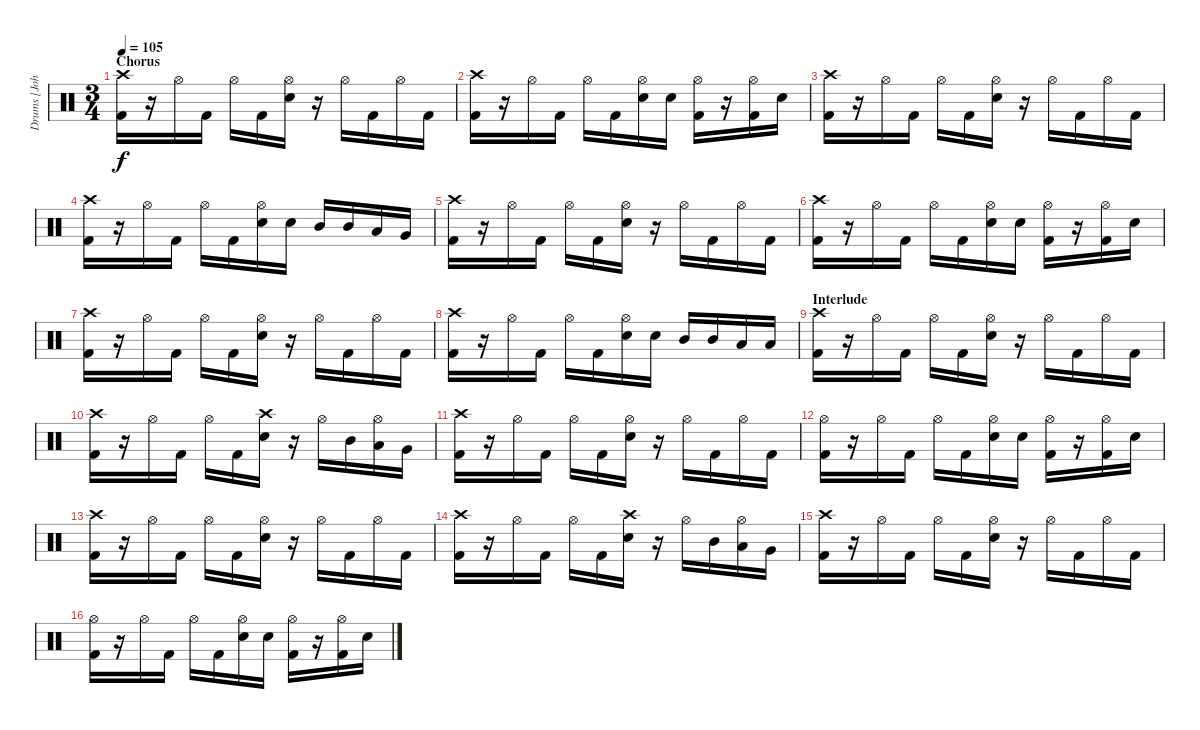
\track ("Drums [John Otto]" "Drums [Joh") {instrument percussion}
\staff {score}
\articulation defaults
\ts (3 4)
\section ("" "Chorus")
\tempo 105
\clef neutral
\ks c
("Crash high (hit)" "Kick (hit) 2").16{dy f} r.16 "Hi-Hat (open)".16 "Kick (hit) 2".16 "Hi-Hat (open)".16 "Kick (hit) 2".16 ("Hi-Hat (open)" "Electric Snare (hit)").16 r.16 "Hi-Hat (open)".16 "Kick (hit) 2".16 "Hi-Hat (open)".16 "Kick (hit) 2".16 |
("Crash high (hit)" "Kick (hit) 2").16 r.16 "Hi-Hat (open)".16 "Kick (hit) 2".16 "Hi-Hat (open)".16 "Kick (hit) 2".16 ("Hi-Hat (open)" "Electric Snare (hit)").16 "Electric Snare (hit)".16 ("Hi-Hat (open)" "Kick (hit) 2").16 r.16 ("Hi-Hat (open)" "Kick (hit) 2").16 "Electric Snare (hit)".16 |
("Crash high (hit)" "Kick (hit) 2").16 r.16 "Hi-Hat (open)".16 "Kick (hit) 2".16 "Hi-Hat (open)".16 "Kick (hit) 2".16 ("Hi-Hat (open)" "Electric Snare (hit)").16 r.16 "Hi-Hat (open)".16 "Kick (hit) 2".16 "Hi-Hat (open)".16 "Kick (hit) 2".16 |
("Crash high (hit)" "Kick (hit) 2").16 r.16 "Hi-Hat (open)".16 "Kick (hit) 2".16 "Hi-Hat (open)".16 "Kick (hit) 2".16 ("Hi-Hat (open)" "Electric Snare (hit)").16 "Electric Snare (hit)".16 "Mid Tom (hit)".16 "Mid Tom (hit)".16 "Low Tom (hit)".16 "Very Low Tom (hit)".16 |
("Crash high (hit)" "Kick (hit) 2").16 r.16 "Hi-Hat (open)".16 "Kick (hit) 2".16 "Hi-Hat (open)".16 "Kick (hit) 2".16 ("Hi-Hat (open)" "Electric Snare (hit)").16 r.16 "Hi-Hat (open)".16 "Kick (hit) 2".16 "Hi-Hat (open)".16 "Kick (hit) 2".16 |
("Crash high (hit)" "Kick (hit) 2").16 r.16 "Hi-Hat (open)".16 "Kick (hit) 2".16 "Hi-Hat (open)".16 "Kick (hit) 2".16 ("Hi-Hat (open)" "Electric Snare (hit)").16 "Electric Snare (hit)".16 ("Hi-Hat (open)" "Kick (hit) 2").16 r.16 ("Hi-Hat (open)" "Kick (hit) 2").16 "Electric Snare (hit)".16 |
("Crash high (hit)" "Kick (hit) 2").16 r.16 "Hi-Hat (open)".16 "Kick (hit) 2".16 "Hi-Hat (open)".16 "Kick (hit) 2".16 ("Hi-Hat (open)" "Electric Snare (hit)").16 r.16 "Hi-Hat (open)".16 "Kick (hit) 2".16 "Hi-Hat (open)".16 "Kick (hit) 2".16 |
("Crash high (hit)" "Kick (hit) 2").16 r.16 "Hi-Hat (open)".16 "Kick (hit) 2".16 "Hi-Hat (open)".16 "Kick (hit) 2".16 ("Hi-Hat (open)" "Electric Snare (hit)").16 "Electric Snare (hit)".16 "Mid Tom (hit)".16 "Mid Tom (hit)".16 "Low Tom (hit)".16 "Low Tom (hit)".16 |
\section ("" "Interlude")
("Crash high (hit)" "Kick (hit) 2").16 r.16 "Hi-Hat (open)".16 "Kick (hit) 2".16 "Hi-Hat (open)".16 "Kick (hit) 2".16 ("Hi-Hat (open)" "Electric Snare (hit)").16 r.16 "Hi-Hat (open)".16 "Kick (hit) 2".16 "Hi-Hat (open)".16 "Kick (hit) 2".16 |
("Crash high (hit)" "Kick (hit) 2").16 r.16 "Hi-Hat (open)".16 "Kick (hit) 2".16 "Hi-Hat (open)".16 "Kick (hit) 2".16 ("Crash high (hit)" "Electric Snare (hit)").16 r.16 "Hi-Hat (open)".16 "Mid Tom (hit)".16 ("Hi-Hat (open)" "Low Tom (hit)").16 "Very Low Tom (hit)".16 |
("Crash high (hit)" "Kick (hit) 2").16 r.16 "Hi-Hat (open)".16 "Kick (hit) 2".16 "Hi-Hat (open)".16 "Kick (hit) 2".16 ("Hi-Hat (open)" "Electric Snare (hit)").16 r.16 "Hi-Hat (open)".16 "Kick (hit) 2".16 "Hi-Hat (open)".16 "Kick (hit) 2".16 |
("Hi-Hat (open)" "Kick (hit) 2").16 r.16 "Hi-Hat (open)".16 "Kick (hit) 2".16 "Hi-Hat (open)".16 "Kick (hit) 2".16 ("Hi-Hat (open)" "Electric Snare (hit)").16 "Electric Snare (hit)".16 ("Hi-Hat (open)" "Kick (hit) 2").16 r.16 ("Hi-Hat (open)" "Kick (hit) 2").16 "Electric Snare (hit)".16 |
("Crash high (hit)" "Kick (hit) 2").16 r.16 "Hi-Hat (open)".16 "Kick (hit) 2".16 "Hi-Hat (open)".16 "Kick (hit) 2".16 ("Hi-Hat (open)" "Electric Snare (hit)").16 r.16 "Hi-Hat (open)".16 "Kick (hit) 2".16 "Hi-Hat (open)".16 "Kick (hit) 2".16 |
("Crash high (hit)" "Kick (hit) 2").16 r.16 "Hi-Hat (open)".16 "Kick (hit) 2".16 "Hi-Hat (open)".16 "Kick (hit) 2".16 ("Crash high (hit)" "Electric Snare (hit)").16 r.16 "Hi-Hat (open)".16 "Mid Tom (hit)".16 ("Hi-Hat (open)" "Low Tom (hit)").16 "Very Low Tom (hit)".16 |
("Crash high (hit)" "Kick (hit) 2").16 r.16 "Hi-Hat (open)".16 "Kick (hit) 2".16 "Hi-Hat (open)".16 "Kick (hit) 2".16 ("Hi-Hat (open)" "Electric Snare (hit)").16 r.16 "Hi-Hat (open)".16 "Kick (hit) 2".16 "Hi-Hat (open)".16 "Kick (hit) 2".16 |
("Hi-Hat (open)" "Kick (hit) 2").16 r.16 "Hi-Hat (open)".16 "Kick (hit) 2".16 "Hi-Hat (open)".16 "Kick (hit) 2".16 ("Hi-Hat (open)" "Electric Snare (hit)").16 "Electric Snare (hit)".16 ("Hi-Hat (open)" "Kick (hit) 2").16 r.16 ("Hi-Hat (open)" "Kick (hit) 2").16 "Electric Snare (hit)".16
